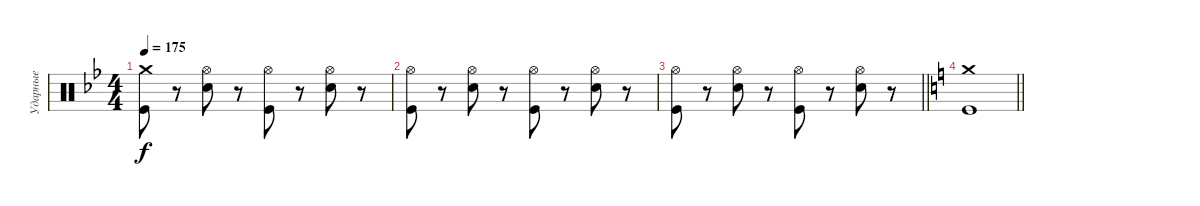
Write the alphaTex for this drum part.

\track ("Ударные" "Ударные") {instrument percussion}
\staff {score}
\articulation defaults
\ts (4 4)
\tempo 175
\clef neutral
\ks bb
("Crash medium (hit)" "Kick (hit)").8{dy f} r.8 ("Hi-Hat (open)" "Electric Snare (hit)").8 r.8 ("Hi-Hat (open)" "Kick (hit)").8 r.8 ("Hi-Hat (open)" "Electric Snare (hit)").8 r.8 |
("Hi-Hat (open)" "Kick (hit)").8 r.8 ("Hi-Hat (open)" "Electric Snare (hit)").8 r.8 ("Hi-Hat (open)" "Kick (hit)").8 r.8 ("Hi-Hat (open)" "Electric Snare (hit)").8 r.8 |
\barLineRight lightlight
("Hi-Hat (open)" "Kick (hit)").8 r.8 ("Hi-Hat (open)" "Electric Snare (hit)").8 r.8 ("Hi-Hat (open)" "Kick (hit)").8 r.8 ("Hi-Hat (open)" "Electric Snare (hit)").8 r.8 |
\barLineRight lightlight
\ks c
("Crash medium (hit)" "Kick (hit)").1
